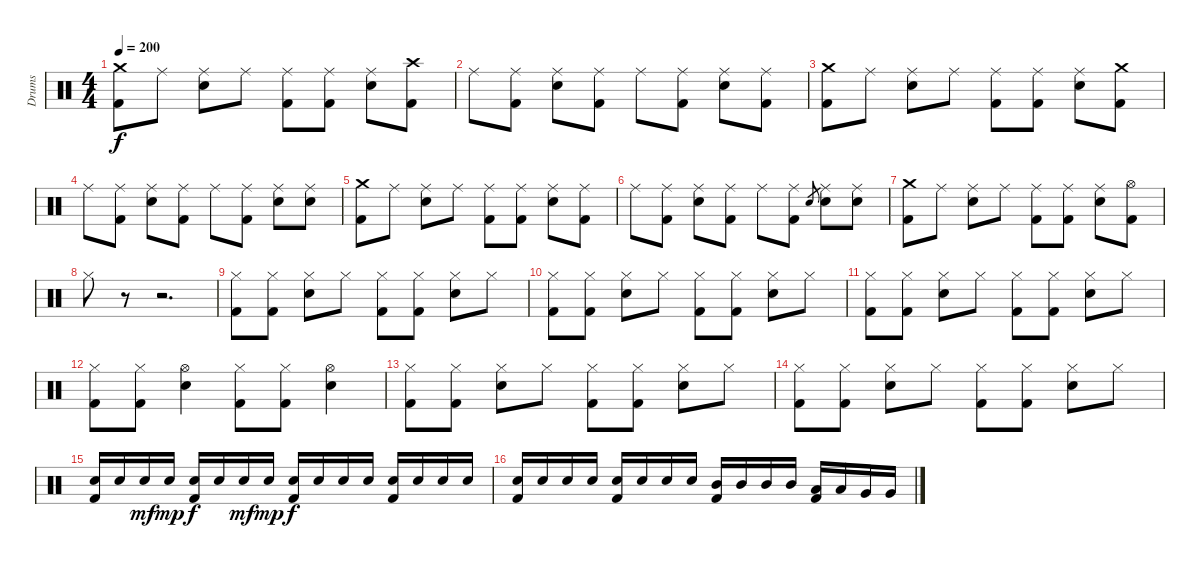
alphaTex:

\track ("Drums" "Drums") {instrument percussion}
\staff {score}
\articulation defaults
\ts (4 4)
\tempo 200
\clef neutral
\ks c
("Crash medium (hit)" "Kick (hit) 2").8{dy f} "Ride (middle)".8 ("Ride (middle)" "Electric Snare (hit)").8 "Ride (middle)".8 ("Ride (middle)" "Kick (hit) 2").8 ("Ride (middle)" "Kick (hit) 2").8 ("Ride (middle)" "Electric Snare (hit)").8 ("Crash high (hit)" "Kick (hit) 2").8 |
"Ride (middle)".8 ("Ride (middle)" "Kick (hit) 2").8 ("Ride (middle)" "Electric Snare (hit)").8 ("Ride (middle)" "Kick (hit) 2").8 "Ride (middle)".8 ("Ride (middle)" "Kick (hit) 2").8 ("Ride (middle)" "Electric Snare (hit)").8 ("Ride (middle)" "Kick (hit) 2").8 |
("Crash medium (hit)" "Kick (hit) 2").8 "Ride (middle)".8 ("Ride (middle)" "Electric Snare (hit)").8 "Ride (middle)".8 ("Ride (middle)" "Kick (hit) 2").8 ("Ride (middle)" "Kick (hit) 2").8 ("Ride (middle)" "Electric Snare (hit)").8 ("Crash medium (hit)" "Kick (hit) 2").8 |
"Ride (middle)".8 ("Ride (middle)" "Kick (hit) 2").8 ("Ride (middle)" "Electric Snare (hit)").8 ("Ride (middle)" "Kick (hit) 2").8 "Ride (middle)".8 ("Ride (middle)" "Kick (hit) 2").8 ("Ride (middle)" "Electric Snare (hit)").8 ("Ride (middle)" "Electric Snare (hit)").8 |
("Crash medium (hit)" "Kick (hit) 2").8 "Ride (middle)".8 ("Ride (middle)" "Electric Snare (hit)").8 "Ride (middle)".8 ("Ride (middle)" "Kick (hit) 2").8 ("Ride (middle)" "Kick (hit) 2").8 ("Ride (middle)" "Electric Snare (hit)").8 ("Ride (middle)" "Kick (hit) 2").8 |
"Ride (middle)".8 ("Ride (middle)" "Kick (hit) 2").8 ("Ride (middle)" "Electric Snare (hit)").8 ("Ride (middle)" "Kick (hit) 2").8 "Ride (middle)".8 ("Ride (middle)" "Kick (hit) 2").8 "Electric Snare (hit)".8{gr} ("Ride (middle)" "Electric Snare (hit)").8 ("Ride (middle)" "Electric Snare (hit)").8 |
("Crash medium (hit)" "Kick (hit) 2").8 "Ride (middle)".8 ("Ride (middle)" "Electric Snare (hit)").8 "Ride (middle)".8 ("Ride (middle)" "Kick (hit) 2").8 ("Ride (middle)" "Kick (hit) 2").8 ("Ride (middle)" "Electric Snare (hit)").8 ("Hi-Hat (open)" "Kick (hit) 2").8 |
"Hi-Hat (closed)".8 r.8 r.2{d} |
("Hi-Hat (closed)" "Kick (hit) 2").8 ("Hi-Hat (closed)" "Kick (hit) 2").8 ("Hi-Hat (closed)" "Electric Snare (hit)").8 "Hi-Hat (closed)".8 ("Hi-Hat (closed)" "Kick (hit) 2").8 ("Hi-Hat (closed)" "Kick (hit) 2").8 ("Hi-Hat (closed)" "Electric Snare (hit)").8 "Hi-Hat (closed)".8 |
("Hi-Hat (closed)" "Kick (hit) 2").8 ("Hi-Hat (closed)" "Kick (hit) 2").8 ("Hi-Hat (closed)" "Electric Snare (hit)").8 "Hi-Hat (closed)".8 ("Hi-Hat (closed)" "Kick (hit) 2").8 ("Hi-Hat (closed)" "Kick (hit) 2").8 ("Hi-Hat (closed)" "Electric Snare (hit)").8 "Hi-Hat (closed)".8 |
("Hi-Hat (closed)" "Kick (hit) 2").8 ("Hi-Hat (closed)" "Kick (hit) 2").8 ("Hi-Hat (closed)" "Electric Snare (hit)").8 "Hi-Hat (closed)".8 ("Hi-Hat (closed)" "Kick (hit) 2").8 ("Hi-Hat (closed)" "Kick (hit) 2").8 ("Hi-Hat (closed)" "Electric Snare (hit)").8 "Hi-Hat (closed)".8 |
("Hi-Hat (closed)" "Kick (hit) 2").8 ("Hi-Hat (closed)" "Kick (hit) 2").8 ("Hi-Hat (open)" "Electric Snare (hit)").4 ("Hi-Hat (closed)" "Kick (hit) 2").8 ("Hi-Hat (closed)" "Kick (hit) 2").8 ("Hi-Hat (open)" "Electric Snare (hit)").4 |
("Hi-Hat (closed)" "Kick (hit) 2").8 ("Hi-Hat (closed)" "Kick (hit) 2").8 ("Hi-Hat (closed)" "Electric Snare (hit)").8 "Hi-Hat (closed)".8 ("Hi-Hat (closed)" "Kick (hit) 2").8 ("Hi-Hat (closed)" "Kick (hit) 2").8 ("Hi-Hat (closed)" "Electric Snare (hit)").8 "Hi-Hat (closed)".8 |
("Hi-Hat (closed)" "Kick (hit) 2").8 ("Hi-Hat (closed)" "Kick (hit) 2").8 ("Hi-Hat (closed)" "Electric Snare (hit)").8 "Hi-Hat (closed)".8 ("Hi-Hat (closed)" "Kick (hit) 2").8 ("Hi-Hat (closed)" "Kick (hit) 2").8 ("Hi-Hat (closed)" "Electric Snare (hit)").8 "Hi-Hat (closed)".8 |
("Electric Snare (hit)" "Kick (hit) 2").16 "Electric Snare (hit)".16 "Electric Snare (hit)".16{dy mf} "Electric Snare (hit)".16{dy mp} ("Electric Snare (hit)" "Kick (hit) 2").16{dy f} "Electric Snare (hit)".16 "Electric Snare (hit)".16{dy mf} "Electric Snare (hit)".16{dy mp} ("Electric Snare (hit)" "Kick (hit) 2").16{dy f} "Electric Snare (hit)".16 "Electric Snare (hit)".16 "Electric Snare (hit)".16 ("Electric Snare (hit)" "Kick (hit) 2").16 "Electric Snare (hit)".16 "Electric Snare (hit)".16 "Electric Snare (hit)".16 |
("Electric Snare (hit)" "Kick (hit) 2").16 "Electric Snare (hit)".16 "Electric Snare (hit)".16 "Electric Snare (hit)".16 ("Electric Snare (hit)" "Kick (hit) 2").16 "Electric Snare (hit)".16 "Electric Snare (hit)".16 "Electric Snare (hit)".16 ("Mid Tom (hit)" "Kick (hit) 2").16 "Mid Tom (hit)".16 "Mid Tom (hit)".16 "Mid Tom (hit)".16 ("Low Tom (hit)" "Kick (hit) 2").16 "Low Tom (hit)".16 "Very Low Tom (hit)".16 "Very Low Tom (hit)".16
